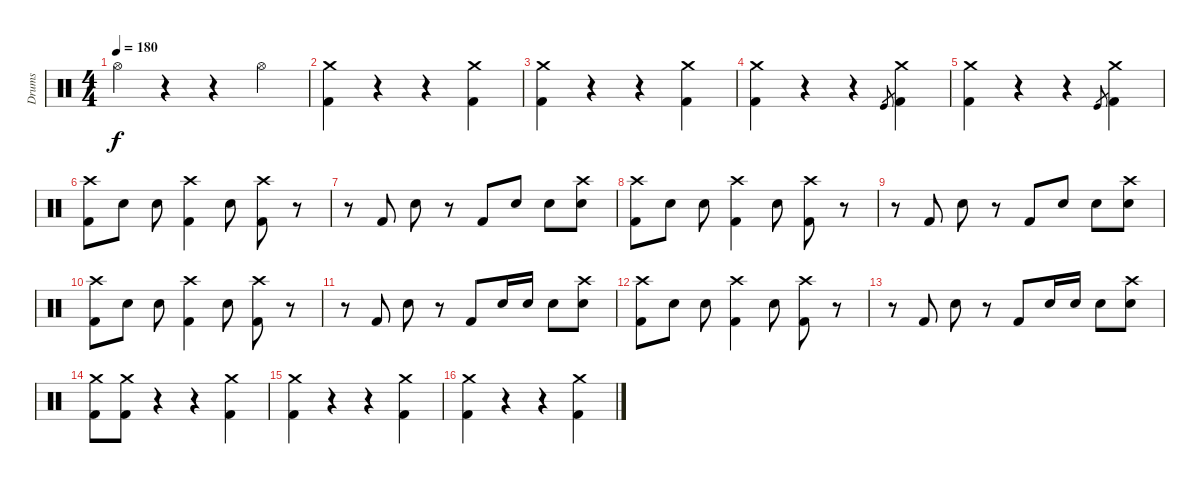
\track ("Drums" "Drums") {instrument percussion}
\staff {score}
\articulation defaults
\ts (4 4)
\tempo 180
\clef neutral
\ks c "Hi-Hat (open)".4{dy f}
r.4 r.4 "Hi-Hat (open)".4 |
("Crash medium (hit)" "Kick (hit) 2").4 r.4 r.4 ("Crash medium (hit)" "Kick (hit) 2").4 |
("Crash medium (hit)" "Kick (hit) 2").4 r.4 r.4 ("Crash medium (hit)" "Kick (hit) 2").4 |
("Crash medium (hit)" "Kick (hit) 2").4 r.4 r.4 "Kick (hit)".8{gr} ("Crash medium (hit)" "Kick (hit) 2").4 |
("Crash medium (hit)" "Kick (hit) 2").4 r.4 r.4 "Kick (hit)".8{gr} ("Crash medium (hit)" "Kick (hit) 2").4 |
("Crash high (hit)" "Kick (hit) 2").8 "Electric Snare (hit)".8 "Electric Snare (hit)".8 ("Crash high (hit)" "Kick (hit) 2").4 "Electric Snare (hit)".8 ("Crash high (hit)" "Kick (hit) 2").8 r.8 |
r.8 "Kick (hit) 2".8 "Electric Snare (hit)".8 r.8 "Kick (hit) 2".8 "Snare (hit) 2".8 "Snare (hit) 2".8 ("Crash high (hit)" "Snare (hit) 2").8 |
("Crash high (hit)" "Kick (hit) 2").8 "Electric Snare (hit)".8 "Electric Snare (hit)".8 ("Crash high (hit)" "Kick (hit) 2").4 "Electric Snare (hit)".8 ("Crash high (hit)" "Kick (hit) 2").8 r.8 |
r.8 "Kick (hit) 2".8 "Electric Snare (hit)".8 r.8 "Kick (hit) 2".8 "Snare (hit) 2".8 "Snare (hit) 2".8 ("Crash high (hit)" "Snare (hit) 2").8 |
("Crash high (hit)" "Kick (hit) 2").8 "Electric Snare (hit)".8 "Electric Snare (hit)".8 ("Crash high (hit)" "Kick (hit) 2").4 "Electric Snare (hit)".8 ("Crash high (hit)" "Kick (hit) 2").8 r.8 |
r.8 "Kick (hit) 2".8 "Electric Snare (hit)".8 r.8 "Kick (hit) 2".8 "Snare (hit) 2".16 "Snare (hit) 2".16 "Snare (hit) 2".8 ("Crash high (hit)" "Snare (hit) 2").8 |
("Crash high (hit)" "Kick (hit) 2").8 "Electric Snare (hit)".8 "Electric Snare (hit)".8 ("Crash high (hit)" "Kick (hit) 2").4 "Electric Snare (hit)".8 ("Crash high (hit)" "Kick (hit) 2").8 r.8 |
r.8 "Kick (hit) 2".8 "Electric Snare (hit)".8 r.8 "Kick (hit) 2".8 "Snare (hit) 2".16 "Snare (hit) 2".16 "Snare (hit) 2".8 ("Crash high (hit)" "Snare (hit) 2").8 |
("Crash medium (hit)" "Kick (hit) 2").8 ("Crash medium (hit)" "Kick (hit) 2").8 r.4 r.4 ("Crash medium (hit)" "Kick (hit) 2").4 |
("Crash medium (hit)" "Kick (hit) 2").4 r.4 r.4 ("Crash medium (hit)" "Kick (hit) 2").4 |
("Crash medium (hit)" "Kick (hit) 2").4 r.4 r.4 ("Crash medium (hit)" "Kick (hit) 2").4
